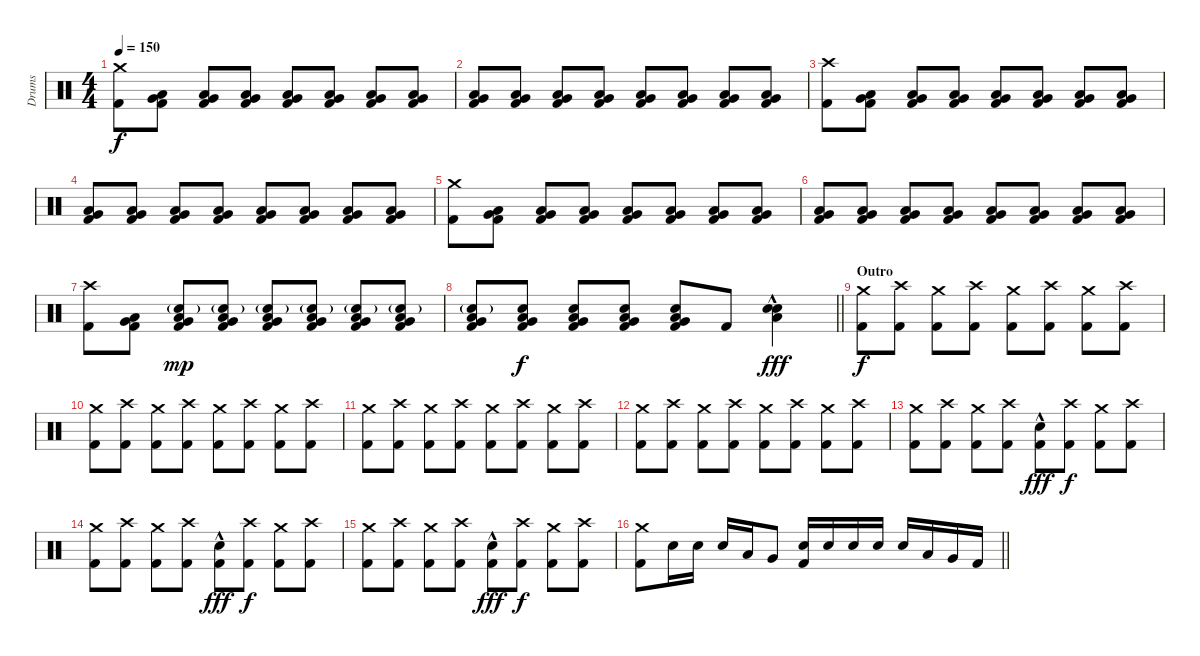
\track ("Drums" "Drums") {instrument percussion}
\staff {score}
\articulation defaults
\ts (4 4)
\tempo 150
\clef neutral
\ks c
("Crash medium (hit)" "Kick (hit) 2").8{dy f} ("Very Low Tom (hit)" "Low Floor Tom (hit)" "Kick (hit) 2").8 ("Very Low Tom (hit)" "Low Floor Tom (hit)" "Kick (hit) 2").8 ("Very Low Tom (hit)" "Low Floor Tom (hit)" "Kick (hit) 2").8 ("Very Low Tom (hit)" "Low Floor Tom (hit)" "Kick (hit) 2").8 ("Very Low Tom (hit)" "Low Floor Tom (hit)" "Kick (hit) 2").8 ("Very Low Tom (hit)" "Low Floor Tom (hit)" "Kick (hit) 2").8 ("Very Low Tom (hit)" "Low Floor Tom (hit)" "Kick (hit) 2").8 |
("Very Low Tom (hit)" "Low Floor Tom (hit)" "Kick (hit) 2").8 ("Very Low Tom (hit)" "Low Floor Tom (hit)" "Kick (hit) 2").8 ("Very Low Tom (hit)" "Low Floor Tom (hit)" "Kick (hit) 2").8 ("Very Low Tom (hit)" "Low Floor Tom (hit)" "Kick (hit) 2").8 ("Very Low Tom (hit)" "Low Floor Tom (hit)" "Kick (hit) 2").8 ("Very Low Tom (hit)" "Low Floor Tom (hit)" "Kick (hit) 2").8 ("Very Low Tom (hit)" "Low Floor Tom (hit)" "Kick (hit) 2").8 ("Very Low Tom (hit)" "Low Floor Tom (hit)" "Kick (hit) 2").8 |
("Crash high (hit)" "Kick (hit) 2").8 ("Very Low Tom (hit)" "Low Floor Tom (hit)" "Kick (hit) 2").8 ("Very Low Tom (hit)" "Low Floor Tom (hit)" "Kick (hit) 2").8 ("Very Low Tom (hit)" "Low Floor Tom (hit)" "Kick (hit) 2").8 ("Very Low Tom (hit)" "Low Floor Tom (hit)" "Kick (hit) 2").8 ("Very Low Tom (hit)" "Low Floor Tom (hit)" "Kick (hit) 2").8 ("Very Low Tom (hit)" "Low Floor Tom (hit)" "Kick (hit) 2").8 ("Very Low Tom (hit)" "Low Floor Tom (hit)" "Kick (hit) 2").8 |
("Very Low Tom (hit)" "Low Floor Tom (hit)" "Kick (hit) 2").8 ("Very Low Tom (hit)" "Low Floor Tom (hit)" "Kick (hit) 2").8 ("Very Low Tom (hit)" "Low Floor Tom (hit)" "Kick (hit) 2").8 ("Very Low Tom (hit)" "Low Floor Tom (hit)" "Kick (hit) 2").8 ("Very Low Tom (hit)" "Low Floor Tom (hit)" "Kick (hit) 2").8 ("Very Low Tom (hit)" "Low Floor Tom (hit)" "Kick (hit) 2").8 ("Very Low Tom (hit)" "Low Floor Tom (hit)" "Kick (hit) 2").8 ("Very Low Tom (hit)" "Low Floor Tom (hit)" "Kick (hit) 2").8 |
("Crash medium (hit)" "Kick (hit) 2").8 ("Very Low Tom (hit)" "Low Floor Tom (hit)" "Kick (hit) 2").8 ("Very Low Tom (hit)" "Low Floor Tom (hit)" "Kick (hit) 2").8 ("Very Low Tom (hit)" "Low Floor Tom (hit)" "Kick (hit) 2").8 ("Very Low Tom (hit)" "Low Floor Tom (hit)" "Kick (hit) 2").8 ("Very Low Tom (hit)" "Low Floor Tom (hit)" "Kick (hit) 2").8 ("Very Low Tom (hit)" "Low Floor Tom (hit)" "Kick (hit) 2").8 ("Very Low Tom (hit)" "Low Floor Tom (hit)" "Kick (hit) 2").8 |
("Very Low Tom (hit)" "Low Floor Tom (hit)" "Kick (hit) 2").8 ("Very Low Tom (hit)" "Low Floor Tom (hit)" "Kick (hit) 2").8 ("Very Low Tom (hit)" "Low Floor Tom (hit)" "Kick (hit) 2").8 ("Very Low Tom (hit)" "Low Floor Tom (hit)" "Kick (hit) 2").8 ("Very Low Tom (hit)" "Low Floor Tom (hit)" "Kick (hit) 2").8 ("Very Low Tom (hit)" "Low Floor Tom (hit)" "Kick (hit) 2").8 ("Very Low Tom (hit)" "Low Floor Tom (hit)" "Kick (hit) 2").8 ("Very Low Tom (hit)" "Low Floor Tom (hit)" "Kick (hit) 2").8 |
("Crash high (hit)" "Kick (hit) 2").8 ("Very Low Tom (hit)" "Low Floor Tom (hit)" "Kick (hit) 2").8 ("Electric Snare (hit)"{g} "Very Low Tom (hit)" "Low Floor Tom (hit)" "Kick (hit) 2").8{dy mp} ("Electric Snare (hit)"{g} "Very Low Tom (hit)" "Low Floor Tom (hit)" "Kick (hit) 2").8 ("Electric Snare (hit)"{g} "Very Low Tom (hit)" "Low Floor Tom (hit)" "Kick (hit) 2").8 ("Electric Snare (hit)"{g} "Very Low Tom (hit)" "Low Floor Tom (hit)" "Kick (hit) 2").8 ("Electric Snare (hit)"{g} "Very Low Tom (hit)" "Low Floor Tom (hit)" "Kick (hit) 2").8 ("Electric Snare (hit)"{g} "Very Low Tom (hit)" "Low Floor Tom (hit)" "Kick (hit) 2").8 |
\barLineRight lightlight
("Electric Snare (hit)"{g} "Very Low Tom (hit)" "Low Floor Tom (hit)" "Kick (hit) 2").8 ("Electric Snare (hit)" "Very Low Tom (hit)" "Low Floor Tom (hit)" "Kick (hit) 2").8{dy f} ("Electric Snare (hit)" "Very Low Tom (hit)" "Low Floor Tom (hit)" "Kick (hit) 2").8 ("Electric Snare (hit)" "Very Low Tom (hit)" "Low Floor Tom (hit)" "Kick (hit) 2").8 ("Electric Snare (hit)" "Very Low Tom (hit)" "Low Floor Tom (hit)" "Kick (hit) 2").8 "Kick (hit) 2".8 ("Electric Snare (hit)"{hac} "Snare (hit) 2" "Low Floor Tom (hit)").4{dy fff} |
\section ("" "Outro")
("Crash medium (hit)" "Kick (hit) 2").8{dy f} ("Crash high (hit)" "Kick (hit) 2").8 ("Crash medium (hit)" "Kick (hit) 2").8 ("Crash high (hit)" "Kick (hit) 2").8 ("Crash medium (hit)" "Kick (hit) 2").8 ("Crash high (hit)" "Kick (hit) 2").8 ("Crash medium (hit)" "Kick (hit) 2").8 ("Crash high (hit)" "Kick (hit) 2").8 |
("Crash medium (hit)" "Kick (hit) 2").8 ("Crash high (hit)" "Kick (hit) 2").8 ("Crash medium (hit)" "Kick (hit) 2").8 ("Crash high (hit)" "Kick (hit) 2").8 ("Crash medium (hit)" "Kick (hit) 2").8 ("Crash high (hit)" "Kick (hit) 2").8 ("Crash medium (hit)" "Kick (hit) 2").8 ("Crash high (hit)" "Kick (hit) 2").8 |
("Crash medium (hit)" "Kick (hit) 2").8 ("Crash high (hit)" "Kick (hit) 2").8 ("Crash medium (hit)" "Kick (hit) 2").8 ("Crash high (hit)" "Kick (hit) 2").8 ("Crash medium (hit)" "Kick (hit) 2").8 ("Crash high (hit)" "Kick (hit) 2").8 ("Crash medium (hit)" "Kick (hit) 2").8 ("Crash high (hit)" "Kick (hit) 2").8 |
("Crash medium (hit)" "Kick (hit) 2").8 ("Crash high (hit)" "Kick (hit) 2").8 ("Crash medium (hit)" "Kick (hit) 2").8 ("Crash high (hit)" "Kick (hit) 2").8 ("Crash medium (hit)" "Kick (hit) 2").8 ("Crash high (hit)" "Kick (hit) 2").8 ("Crash medium (hit)" "Kick (hit) 2").8 ("Crash high (hit)" "Kick (hit) 2").8 |
("Crash medium (hit)" "Kick (hit) 2").8 ("Crash high (hit)" "Kick (hit) 2").8 ("Crash medium (hit)" "Kick (hit) 2").8 ("Crash high (hit)" "Kick (hit) 2").8 ("Electric Snare (hit)"{hac} "Kick (hit) 2").8{dy fff} ("Crash high (hit)" "Kick (hit) 2").8{dy f} ("Crash medium (hit)" "Kick (hit) 2").8 ("Crash high (hit)" "Kick (hit) 2").8 |
("Crash medium (hit)" "Kick (hit) 2").8 ("Crash high (hit)" "Kick (hit) 2").8 ("Crash medium (hit)" "Kick (hit) 2").8 ("Crash high (hit)" "Kick (hit) 2").8 ("Electric Snare (hit)"{hac} "Kick (hit) 2").8{dy fff} ("Crash high (hit)" "Kick (hit) 2").8{dy f} ("Crash medium (hit)" "Kick (hit) 2").8 ("Crash high (hit)" "Kick (hit) 2").8 |
("Crash medium (hit)" "Kick (hit) 2").8 ("Crash high (hit)" "Kick (hit) 2").8 ("Crash medium (hit)" "Kick (hit) 2").8 ("Crash high (hit)" "Kick (hit) 2").8 ("Electric Snare (hit)"{hac} "Kick (hit) 2").8{dy fff} ("Crash high (hit)" "Kick (hit) 2").8{dy f} ("Crash medium (hit)" "Kick (hit) 2").8 ("Crash high (hit)" "Kick (hit) 2").8 |
\barLineRight lightlight
("Crash medium (hit)" "Kick (hit) 2").8 "Electric Snare (hit)".16 "Electric Snare (hit)".16 "Electric Snare (hit)".16 "Low Tom (hit)".16 "Very Low Tom (hit)".8 ("Electric Snare (hit)" "Kick (hit) 2").16 "Electric Snare (hit)".16 "Electric Snare (hit)".16 "Electric Snare (hit)".16 "Electric Snare (hit)".16 "Low Tom (hit)".16 "Very Low Tom (hit)".16 "Kick (hit) 2".16
